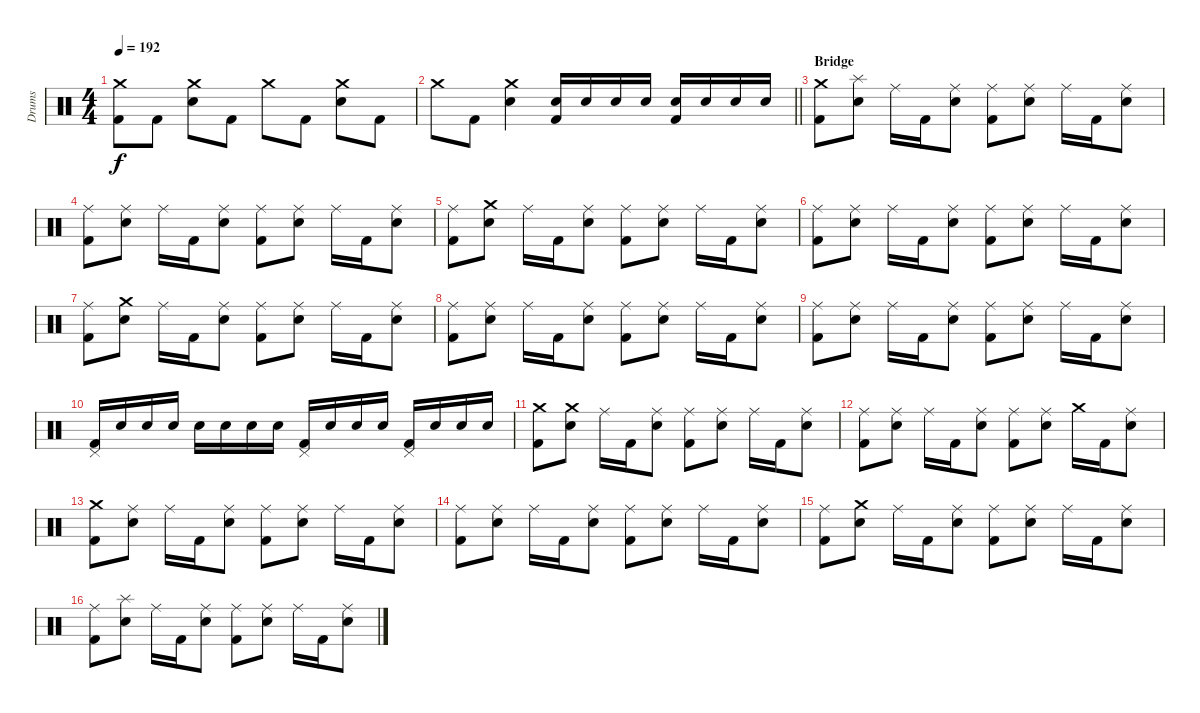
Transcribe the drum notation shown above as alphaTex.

\track ("Drums" "Drums") {instrument percussion}
\staff {score}
\articulation defaults
\ts (4 4)
\tempo 192
\clef neutral
\ks c
("Crash medium (hit)" "Kick (hit) 2").8{dy f} "Kick (hit) 2".8 ("Crash medium (hit)" "Electric Snare (hit)").8 "Kick (hit) 2".8 "Crash medium (hit)".8 "Kick (hit) 2".8 ("Crash medium (hit)" "Electric Snare (hit)").8 "Kick (hit) 2".8 |
\barLineRight lightlight "Crash medium (hit)".8 "Kick (hit) 2".8
("Crash medium (hit)" "Electric Snare (hit)").4 ("Electric Snare (hit)" "Kick (hit) 2").16 "Electric Snare (hit)".16 "Electric Snare (hit)".16 "Electric Snare (hit)".16 ("Electric Snare (hit)" "Kick (hit) 2").16 "Electric Snare (hit)".16 "Electric Snare (hit)".16 "Electric Snare (hit)".16 |
\section ("" "Bridge")
("Crash medium (hit)" "Kick (hit) 2").8 ("Splash (hit)" "Electric Snare (hit)").8 "Ride (middle)".16 "Kick (hit) 2".16 ("Ride (middle)" "Electric Snare (hit)").8 ("Ride (middle)" "Kick (hit) 2").8 ("Ride (middle)" "Electric Snare (hit)").8 "Ride (middle)".16 "Kick (hit) 2".16 ("Ride (middle)" "Electric Snare (hit)").8 |
("Ride (middle)" "Kick (hit) 2").8 ("Ride (middle)" "Electric Snare (hit)").8 "Ride (middle)".16 "Kick (hit) 2".16 ("Ride (middle)" "Electric Snare (hit)").8 ("Ride (middle)" "Kick (hit) 2").8 ("Ride (middle)" "Electric Snare (hit)").8 "Ride (middle)".16 "Kick (hit) 2".16 ("Ride (middle)" "Electric Snare (hit)").8 |
("Ride (middle)" "Kick (hit) 2").8 ("Crash medium (hit)" "Electric Snare (hit)").8 "Ride (middle)".16 "Kick (hit) 2".16 ("Ride (middle)" "Electric Snare (hit)").8 ("Ride (middle)" "Kick (hit) 2").8 ("Ride (middle)" "Electric Snare (hit)").8 "Ride (middle)".16 "Kick (hit) 2".16 ("Ride (middle)" "Electric Snare (hit)").8 |
("Ride (middle)" "Kick (hit) 2").8 ("Ride (middle)" "Electric Snare (hit)").8 "Ride (middle)".16 "Kick (hit) 2".16 ("Ride (middle)" "Electric Snare (hit)").8 ("Ride (middle)" "Kick (hit) 2").8 ("Ride (middle)" "Electric Snare (hit)").8 "Ride (middle)".16 "Kick (hit) 2".16 ("Ride (middle)" "Electric Snare (hit)").8 |
("Ride (middle)" "Kick (hit) 2").8 ("Crash medium (hit)" "Electric Snare (hit)").8 "Ride (middle)".16 "Kick (hit) 2".16 ("Ride (middle)" "Electric Snare (hit)").8 ("Ride (middle)" "Kick (hit) 2").8 ("Ride (middle)" "Electric Snare (hit)").8 "Ride (middle)".16 "Kick (hit) 2".16 ("Ride (middle)" "Electric Snare (hit)").8 |
("Ride (middle)" "Kick (hit) 2").8 ("Ride (middle)" "Electric Snare (hit)").8 "Ride (middle)".16 "Kick (hit) 2".16 ("Ride (middle)" "Electric Snare (hit)").8 ("Ride (middle)" "Kick (hit) 2").8 ("Ride (middle)" "Electric Snare (hit)").8 "Ride (middle)".16 "Kick (hit) 2".16 ("Ride (middle)" "Electric Snare (hit)").8 |
("Ride (middle)" "Kick (hit) 2").8 ("Ride (middle)" "Electric Snare (hit)").8 "Ride (middle)".16 "Kick (hit) 2".16 ("Ride (middle)" "Electric Snare (hit)").8 ("Ride (middle)" "Kick (hit) 2").8 ("Ride (middle)" "Electric Snare (hit)").8 "Ride (middle)".16 "Kick (hit) 2".16 ("Ride (middle)" "Electric Snare (hit)").8 |
("Pedal Hi-Hat (hit)" "Kick (hit) 2").16 "Electric Snare (hit)".16 "Electric Snare (hit)".16 "Electric Snare (hit)".16 "Electric Snare (hit)".16 "Electric Snare (hit)".16 "Electric Snare (hit)".16 "Electric Snare (hit)".16 ("Pedal Hi-Hat (hit)" "Kick (hit) 2").16 "Electric Snare (hit)".16 "Electric Snare (hit)".16 "Electric Snare (hit)".16 ("Pedal Hi-Hat (hit)" "Kick (hit) 2").16 "Electric Snare (hit)".16 "Electric Snare (hit)".16 "Electric Snare (hit)".16 |
("Crash medium (hit)" "Kick (hit) 2").8 ("Crash medium (hit)" "Electric Snare (hit)").8 "Ride (middle)".16 "Kick (hit) 2".16 ("Ride (middle)" "Electric Snare (hit)").8 ("Ride (middle)" "Kick (hit) 2").8 ("Ride (middle)" "Electric Snare (hit)").8 "Ride (middle)".16 "Kick (hit) 2".16 ("Ride (middle)" "Electric Snare (hit)").8 |
("Ride (middle)" "Kick (hit) 2").8 ("Ride (middle)" "Electric Snare (hit)").8 "Ride (middle)".16 "Kick (hit) 2".16 ("Ride (middle)" "Electric Snare (hit)").8 ("Ride (middle)" "Kick (hit) 2").8 ("Ride (middle)" "Electric Snare (hit)").8 "Crash medium (hit)".16 "Kick (hit) 2".16 ("Ride (middle)" "Electric Snare (hit)").8 |
("Crash medium (hit)" "Kick (hit) 2").8 ("Ride (middle)" "Electric Snare (hit)").8 "Ride (middle)".16 "Kick (hit) 2".16 ("Ride (middle)" "Electric Snare (hit)").8 ("Ride (middle)" "Kick (hit) 2").8 ("Ride (middle)" "Electric Snare (hit)").8 "Ride (middle)".16 "Kick (hit) 2".16 ("Ride (middle)" "Electric Snare (hit)").8 |
("Ride (middle)" "Kick (hit) 2").8 ("Ride (middle)" "Electric Snare (hit)").8 "Ride (middle)".16 "Kick (hit) 2".16 ("Ride (middle)" "Electric Snare (hit)").8 ("Ride (middle)" "Kick (hit) 2").8 ("Ride (middle)" "Electric Snare (hit)").8 "Ride (middle)".16 "Kick (hit) 2".16 ("Ride (middle)" "Electric Snare (hit)").8 |
("Ride (middle)" "Kick (hit) 2").8 ("Crash medium (hit)" "Electric Snare (hit)").8 "Ride (middle)".16 "Kick (hit) 2".16 ("Ride (middle)" "Electric Snare (hit)").8 ("Ride (middle)" "Kick (hit) 2").8 ("Ride (middle)" "Electric Snare (hit)").8 "Ride (middle)".16 "Kick (hit) 2".16 ("Ride (middle)" "Electric Snare (hit)").8 |
("Ride (middle)" "Kick (hit) 2").8 ("Splash (hit)" "Electric Snare (hit)").8 "Ride (middle)".16 "Kick (hit) 2".16 ("Ride (middle)" "Electric Snare (hit)").8 ("Ride (middle)" "Kick (hit) 2").8 ("Ride (middle)" "Electric Snare (hit)").8 "Ride (middle)".16 "Kick (hit) 2".16 ("Ride (middle)" "Electric Snare (hit)").8
